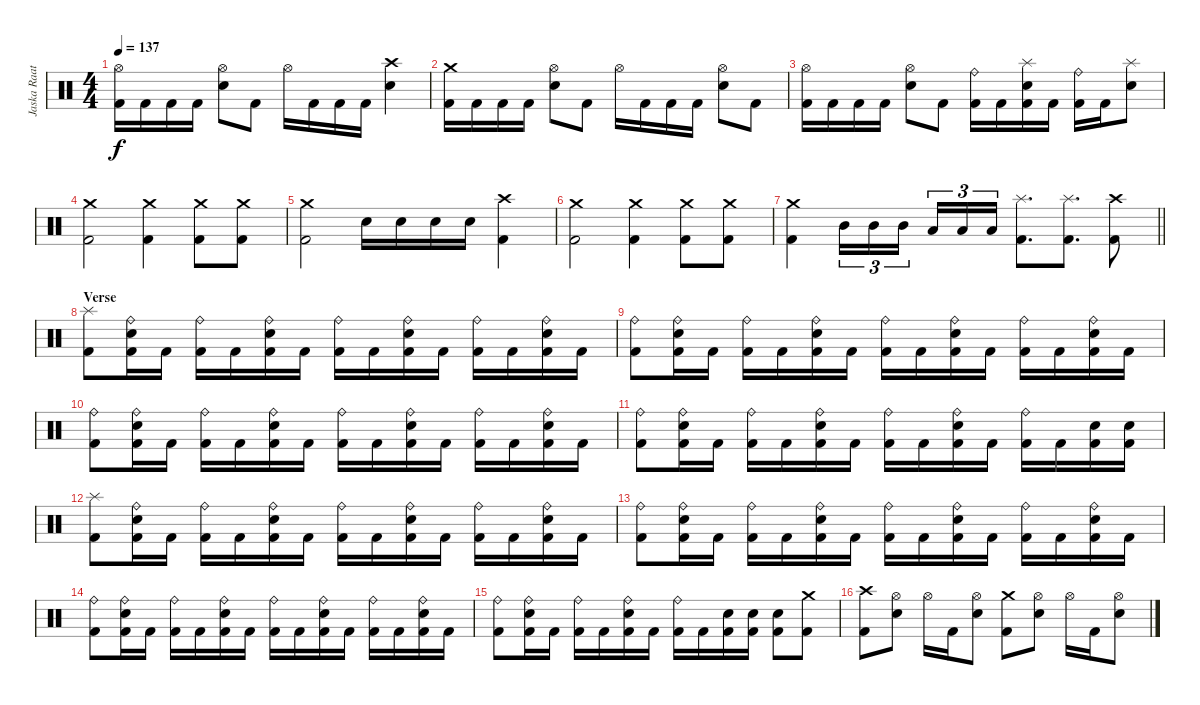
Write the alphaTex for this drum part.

\track ("Jaska Raatikainen" "Jaska Raat") {instrument percussion}
\staff {score}
\articulation defaults
\ts (4 4)
\tempo 137
\clef neutral
\ks c
("Hi-Hat (open)" "Kick (hit) 2").16{dy f} "Kick (hit) 2".16 "Kick (hit) 2".16 "Kick (hit) 2".16 ("Hi-Hat (open)" "Electric Snare (hit)").8 "Kick (hit) 2".8 "Hi-Hat (open)".16 "Kick (hit) 2".16 "Kick (hit) 2".16 "Kick (hit) 2".16 ("Crash high (hit)" "Electric Snare (hit)").4 |
("Crash medium (hit)" "Kick (hit) 2").16 "Kick (hit) 2".16 "Kick (hit) 2".16 "Kick (hit) 2".16 ("Hi-Hat (open)" "Electric Snare (hit)").8 "Kick (hit) 2".8 "Hi-Hat (open)".16 "Kick (hit) 2".16 "Kick (hit) 2".16 "Kick (hit) 2".16 ("Hi-Hat (open)" "Electric Snare (hit)").8 "Kick (hit) 2".8 |
("Hi-Hat (open)" "Kick (hit) 2").16 "Kick (hit) 2".16 "Kick (hit) 2".16 "Kick (hit) 2".16 ("Hi-Hat (open)" "Electric Snare (hit)").8 "Kick (hit) 2".8 ("Ride (bell)" "Kick (hit) 2").16 "Kick (hit) 2".16 ("Splash (hit)" "Electric Snare (hit)" "Kick (hit) 2").16 "Kick (hit) 2".16 ("Ride (bell)" "Kick (hit) 2").16 "Kick (hit) 2".16 ("Splash (hit)" "Electric Snare (hit)").8 |
("Crash medium (hit)" "Kick (hit) 2").2 ("Crash medium (hit)" "Kick (hit) 2").4 ("Crash medium (hit)" "Kick (hit) 2").8 ("Crash medium (hit)" "Kick (hit) 2").8 |
("Crash medium (hit)" "Kick (hit) 2").2 "Electric Snare (hit)".16 "Electric Snare (hit)".16 "Electric Snare (hit)".16 "Electric Snare (hit)".16 ("Crash high (hit)" "Kick (hit) 2").4 |
("Crash medium (hit)" "Kick (hit) 2").2 ("Crash medium (hit)" "Kick (hit) 2").4 ("Crash medium (hit)" "Kick (hit) 2").8 ("Crash medium (hit)" "Kick (hit) 2").8 |
\barLineRight lightlight
("Crash medium (hit)" "Kick (hit) 2").4 "Mid Tom (hit)".16{tu (3 2)} "Mid Tom (hit)".16{tu (3 2)} "Mid Tom (hit)".16{tu (3 2)} "Low Tom (hit)".16{tu (3 2)} "Low Tom (hit)".16{tu (3 2)} "Low Tom (hit)".16{tu (3 2)} ("Splash (hit)" "Kick (hit) 2").8{d} ("Splash (hit)" "Kick (hit) 2").8{d} ("Crash high (hit)" "Kick (hit) 2").8 |
\section ("" "Verse")
("Splash (hit)" "Kick (hit) 2").8 ("Ride (bell)" "Electric Snare (hit)" "Kick (hit) 2").16 "Kick (hit) 2".16 ("Ride (bell)" "Kick (hit) 2").16 "Kick (hit) 2".16 ("Ride (bell)" "Electric Snare (hit)" "Kick (hit) 2").16 "Kick (hit) 2".16 ("Ride (bell)" "Kick (hit) 2").16 "Kick (hit) 2".16 ("Ride (bell)" "Electric Snare (hit)" "Kick (hit) 2").16 "Kick (hit) 2".16 ("Ride (bell)" "Kick (hit) 2").16 "Kick (hit) 2".16 ("Ride (bell)" "Electric Snare (hit)" "Kick (hit) 2").16 "Kick (hit) 2".16 |
("Ride (bell)" "Kick (hit) 2").8 ("Ride (bell)" "Electric Snare (hit)" "Kick (hit) 2").16 "Kick (hit) 2".16 ("Ride (bell)" "Kick (hit) 2").16 "Kick (hit) 2".16 ("Ride (bell)" "Electric Snare (hit)" "Kick (hit) 2").16 "Kick (hit) 2".16 ("Ride (bell)" "Kick (hit) 2").16 "Kick (hit) 2".16 ("Ride (bell)" "Electric Snare (hit)" "Kick (hit) 2").16 "Kick (hit) 2".16 ("Ride (bell)" "Kick (hit) 2").16 "Kick (hit) 2".16 ("Ride (bell)" "Electric Snare (hit)" "Kick (hit) 2").16 "Kick (hit) 2".16 |
("Ride (bell)" "Kick (hit) 2").8 ("Ride (bell)" "Electric Snare (hit)" "Kick (hit) 2").16 "Kick (hit) 2".16 ("Ride (bell)" "Kick (hit) 2").16 "Kick (hit) 2".16 ("Ride (bell)" "Electric Snare (hit)" "Kick (hit) 2").16 "Kick (hit) 2".16 ("Ride (bell)" "Kick (hit) 2").16 "Kick (hit) 2".16 ("Ride (bell)" "Electric Snare (hit)" "Kick (hit) 2").16 "Kick (hit) 2".16 ("Ride (bell)" "Kick (hit) 2").16 "Kick (hit) 2".16 ("Ride (bell)" "Electric Snare (hit)" "Kick (hit) 2").16 "Kick (hit) 2".16 |
("Ride (bell)" "Kick (hit) 2").8 ("Ride (bell)" "Electric Snare (hit)" "Kick (hit) 2").16 "Kick (hit) 2".16 ("Ride (bell)" "Kick (hit) 2").16 "Kick (hit) 2".16 ("Ride (bell)" "Electric Snare (hit)" "Kick (hit) 2").16 "Kick (hit) 2".16 ("Ride (bell)" "Kick (hit) 2").16 "Kick (hit) 2".16 ("Ride (bell)" "Electric Snare (hit)" "Kick (hit) 2").16 "Kick (hit) 2".16 ("Ride (bell)" "Kick (hit) 2").16 "Kick (hit) 2".16 ("Electric Snare (hit)" "Kick (hit) 2").16 ("Electric Snare (hit)" "Kick (hit) 2").16 |
("Splash (hit)" "Kick (hit) 2").8 ("Ride (bell)" "Electric Snare (hit)" "Kick (hit) 2").16 "Kick (hit) 2".16 ("Ride (bell)" "Kick (hit) 2").16 "Kick (hit) 2".16 ("Ride (bell)" "Electric Snare (hit)" "Kick (hit) 2").16 "Kick (hit) 2".16 ("Ride (bell)" "Kick (hit) 2").16 "Kick (hit) 2".16 ("Ride (bell)" "Electric Snare (hit)" "Kick (hit) 2").16 "Kick (hit) 2".16 ("Ride (bell)" "Kick (hit) 2").16 "Kick (hit) 2".16 ("Ride (bell)" "Electric Snare (hit)" "Kick (hit) 2").16 "Kick (hit) 2".16 |
("Ride (bell)" "Kick (hit) 2").8 ("Ride (bell)" "Electric Snare (hit)" "Kick (hit) 2").16 "Kick (hit) 2".16 ("Ride (bell)" "Kick (hit) 2").16 "Kick (hit) 2".16 ("Ride (bell)" "Electric Snare (hit)" "Kick (hit) 2").16 "Kick (hit) 2".16 ("Ride (bell)" "Kick (hit) 2").16 "Kick (hit) 2".16 ("Ride (bell)" "Electric Snare (hit)" "Kick (hit) 2").16 "Kick (hit) 2".16 ("Ride (bell)" "Kick (hit) 2").16 "Kick (hit) 2".16 ("Ride (bell)" "Electric Snare (hit)" "Kick (hit) 2").16 "Kick (hit) 2".16 |
("Ride (bell)" "Kick (hit) 2").8 ("Ride (bell)" "Electric Snare (hit)" "Kick (hit) 2").16 "Kick (hit) 2".16 ("Ride (bell)" "Kick (hit) 2").16 "Kick (hit) 2".16 ("Ride (bell)" "Electric Snare (hit)" "Kick (hit) 2").16 "Kick (hit) 2".16 ("Ride (bell)" "Kick (hit) 2").16 "Kick (hit) 2".16 ("Ride (bell)" "Electric Snare (hit)" "Kick (hit) 2").16 "Kick (hit) 2".16 ("Ride (bell)" "Kick (hit) 2").16 "Kick (hit) 2".16 ("Ride (bell)" "Electric Snare (hit)" "Kick (hit) 2").16 "Kick (hit) 2".16 |
("Ride (bell)" "Kick (hit) 2").8 ("Ride (bell)" "Electric Snare (hit)" "Kick (hit) 2").16 "Kick (hit) 2".16 ("Ride (bell)" "Kick (hit) 2").16 "Kick (hit) 2".16 ("Ride (bell)" "Electric Snare (hit)" "Kick (hit) 2").16 "Kick (hit) 2".16 ("Ride (bell)" "Kick (hit) 2").16 "Kick (hit) 2".16 ("Electric Snare (hit)" "Kick (hit) 2").16 ("Electric Snare (hit)" "Kick (hit) 2").16 ("Electric Snare (hit)" "Kick (hit) 2").8 ("Crash medium (hit)" "Kick (hit) 2").8 |
("Crash high (hit)" "Kick (hit) 2").8 ("Hi-Hat (open)" "Electric Snare (hit)").8 "Hi-Hat (open)".16 "Kick (hit) 2".16 ("Hi-Hat (open)" "Electric Snare (hit)").8 ("Crash medium (hit)" "Kick (hit) 2").8 ("Hi-Hat (open)" "Electric Snare (hit)").8 "Hi-Hat (open)".16 "Kick (hit) 2".16 ("Hi-Hat (open)" "Electric Snare (hit)").8
